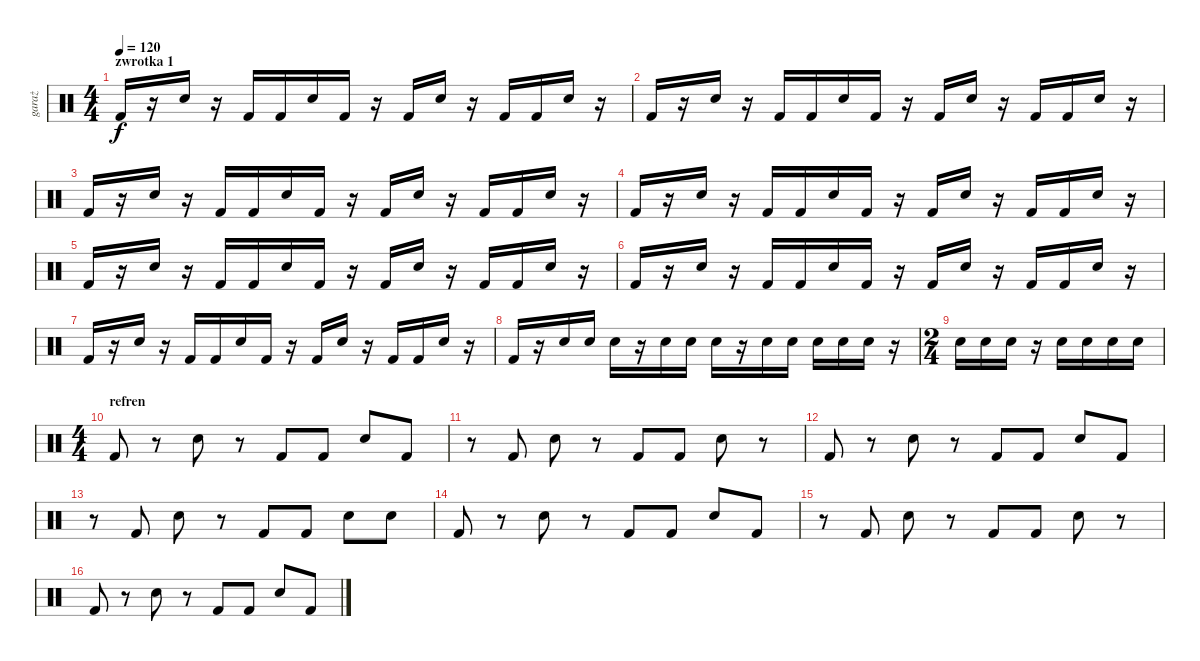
\track ("garaż" "garaż") {instrument percussion}
\staff {score}
\articulation defaults
\ts (4 4)
\section ("" "zwrotka 1")
\tempo 120
\clef neutral
\ks c "Kick (hit) 2".16{dy f}
r.16 "Snare (hit) 2".16 r.16 "Kick (hit) 2".16 "Kick (hit) 2".16 "Snare (hit) 2".16 "Kick (hit) 2".16 r.16 "Kick (hit) 2".16 "Snare (hit) 2".16 r.16 "Kick (hit) 2".16 "Kick (hit) 2".16 "Snare (hit) 2".16 r.16 |
"Kick (hit) 2".16 r.16 "Snare (hit) 2".16 r.16 "Kick (hit) 2".16 "Kick (hit) 2".16 "Snare (hit) 2".16 "Kick (hit) 2".16 r.16 "Kick (hit) 2".16 "Snare (hit) 2".16 r.16 "Kick (hit) 2".16 "Kick (hit) 2".16 "Snare (hit) 2".16 r.16 |
"Kick (hit) 2".16 r.16 "Snare (hit) 2".16 r.16 "Kick (hit) 2".16 "Kick (hit) 2".16 "Snare (hit) 2".16 "Kick (hit) 2".16 r.16 "Kick (hit) 2".16 "Snare (hit) 2".16 r.16 "Kick (hit) 2".16 "Kick (hit) 2".16 "Snare (hit) 2".16 r.16 |
"Kick (hit) 2".16 r.16 "Snare (hit) 2".16 r.16 "Kick (hit) 2".16 "Kick (hit) 2".16 "Snare (hit) 2".16 "Kick (hit) 2".16 r.16 "Kick (hit) 2".16 "Snare (hit) 2".16 r.16 "Kick (hit) 2".16 "Kick (hit) 2".16 "Snare (hit) 2".16 r.16 |
"Kick (hit) 2".16 r.16 "Snare (hit) 2".16 r.16 "Kick (hit) 2".16 "Kick (hit) 2".16 "Snare (hit) 2".16 "Kick (hit) 2".16 r.16 "Kick (hit) 2".16 "Snare (hit) 2".16 r.16 "Kick (hit) 2".16 "Kick (hit) 2".16 "Snare (hit) 2".16 r.16 |
"Kick (hit) 2".16 r.16 "Snare (hit) 2".16 r.16 "Kick (hit) 2".16 "Kick (hit) 2".16 "Snare (hit) 2".16 "Kick (hit) 2".16 r.16 "Kick (hit) 2".16 "Snare (hit) 2".16 r.16 "Kick (hit) 2".16 "Kick (hit) 2".16 "Snare (hit) 2".16 r.16 |
"Kick (hit) 2".16 r.16 "Snare (hit) 2".16 r.16 "Kick (hit) 2".16 "Kick (hit) 2".16 "Snare (hit) 2".16 "Kick (hit) 2".16 r.16 "Kick (hit) 2".16 "Snare (hit) 2".16 r.16 "Kick (hit) 2".16 "Kick (hit) 2".16 "Snare (hit) 2".16 r.16 |
"Kick (hit) 2".16 r.16 "Snare (hit) 2".16 "Snare (hit) 2".16 "Snare (hit) 2".16 r.16 "Snare (hit) 2".16 "Snare (hit) 2".16 "Snare (hit) 2".16 r.16 "Snare (hit) 2".16 "Snare (hit) 2".16 "Snare (hit) 2".16 "Snare (hit) 2".16 "Snare (hit) 2".16 r.16 |
\ts (2 4)
"Snare (hit) 2".16 "Snare (hit) 2".16 "Snare (hit) 2".16 r.16 "Snare (hit) 2".16 "Snare (hit) 2".16 "Snare (hit) 2".16 "Snare (hit) 2".16 |
\ts (4 4)
\section ("" "refren")
"Kick (hit) 2".8 r.8 "Snare (hit) 2".8 r.8 "Kick (hit) 2".8 "Kick (hit) 2".8 "Snare (hit) 2".8 "Kick (hit) 2".8 |
r.8 "Kick (hit) 2".8 "Snare (hit) 2".8 r.8 "Kick (hit) 2".8 "Kick (hit) 2".8 "Snare (hit) 2".8 r.8 |
"Kick (hit) 2".8 r.8 "Snare (hit) 2".8 r.8 "Kick (hit) 2".8 "Kick (hit) 2".8 "Snare (hit) 2".8 "Kick (hit) 2".8 |
r.8 "Kick (hit) 2".8 "Snare (hit) 2".8 r.8 "Kick (hit) 2".8 "Kick (hit) 2".8 "Snare (hit) 2".8 "Snare (hit) 2".8 |
"Kick (hit) 2".8 r.8 "Snare (hit) 2".8 r.8 "Kick (hit) 2".8 "Kick (hit) 2".8 "Snare (hit) 2".8 "Kick (hit) 2".8 |
r.8 "Kick (hit) 2".8 "Snare (hit) 2".8 r.8 "Kick (hit) 2".8 "Kick (hit) 2".8 "Snare (hit) 2".8 r.8 |
"Kick (hit) 2".8 r.8 "Snare (hit) 2".8 r.8 "Kick (hit) 2".8 "Kick (hit) 2".8 "Snare (hit) 2".8 "Kick (hit) 2".8
